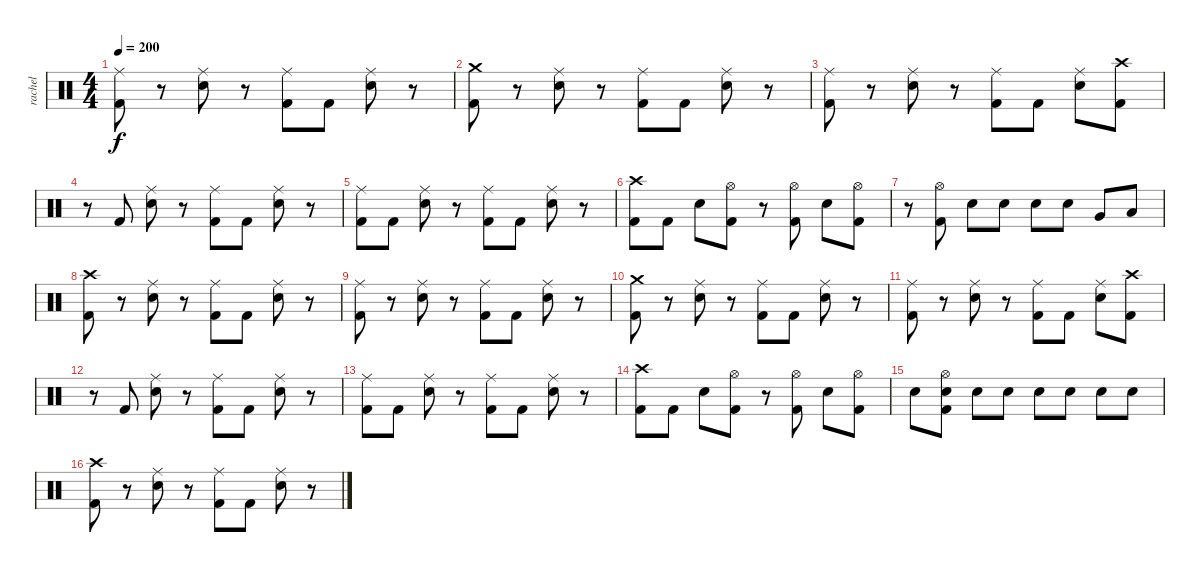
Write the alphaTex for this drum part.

\track ("rachel" "rachel") {instrument percussion}
\staff {score}
\articulation defaults
\ts (4 4)
\tempo 200
\clef neutral
\ks c
("Ride (middle)" "Kick (hit) 2").8{dy f} r.8 ("Ride (middle)" "Electric Snare (hit)").8 r.8 ("Ride (middle)" "Kick (hit) 2").8 "Kick (hit) 2".8 ("Ride (middle)" "Electric Snare (hit)").8 r.8 |
("Crash medium (hit)" "Kick (hit) 2").8 r.8 ("Ride (middle)" "Electric Snare (hit)").8 r.8 ("Ride (middle)" "Kick (hit) 2").8 "Kick (hit) 2".8 ("Ride (middle)" "Electric Snare (hit)").8 r.8 |
("Ride (middle)" "Kick (hit) 2").8 r.8 ("Ride (middle)" "Electric Snare (hit)").8 r.8 ("Ride (middle)" "Kick (hit) 2").8 "Kick (hit) 2".8 ("Ride (middle)" "Electric Snare (hit)").8 ("Crash high (hit)" "Kick (hit) 2").8 |
r.8 "Kick (hit) 2".8 ("Ride (middle)" "Electric Snare (hit)").8 r.8 ("Ride (middle)" "Kick (hit) 2").8 "Kick (hit) 2".8 ("Ride (middle)" "Electric Snare (hit)").8 r.8 |
("Ride (middle)" "Kick (hit) 2").8 "Kick (hit) 2".8 ("Ride (middle)" "Electric Snare (hit)").8 r.8 ("Ride (middle)" "Kick (hit) 2").8 "Kick (hit) 2".8 ("Ride (middle)" "Electric Snare (hit)").8 r.8 |
("Crash high (hit)" "Kick (hit) 2").8 "Kick (hit) 2".8 "Electric Snare (hit)".8 ("Hi-Hat (open)" "Kick (hit) 2").8 r.8 ("Hi-Hat (open)" "Kick (hit) 2").8 "Electric Snare (hit)".8 ("Hi-Hat (open)" "Kick (hit) 2").8 |
r.8 ("Hi-Hat (open)" "Kick (hit) 2").8 "Electric Snare (hit)".8 "Electric Snare (hit)".8 "Electric Snare (hit)".8 "Electric Snare (hit)".8 "Very Low Tom (hit)".8 "Low Floor Tom (hit)".8 |
("Crash high (hit)" "Kick (hit) 2").8 r.8 ("Ride (middle)" "Electric Snare (hit)").8 r.8 ("Ride (middle)" "Kick (hit) 2").8 "Kick (hit) 2".8 ("Ride (middle)" "Electric Snare (hit)").8 r.8 |
("Ride (middle)" "Kick (hit) 2").8 r.8 ("Ride (middle)" "Electric Snare (hit)").8 r.8 ("Ride (middle)" "Kick (hit) 2").8 "Kick (hit) 2".8 ("Ride (middle)" "Electric Snare (hit)").8 r.8 |
("Crash medium (hit)" "Kick (hit) 2").8 r.8 ("Ride (middle)" "Electric Snare (hit)").8 r.8 ("Ride (middle)" "Kick (hit) 2").8 "Kick (hit) 2".8 ("Ride (middle)" "Electric Snare (hit)").8 r.8 |
("Ride (middle)" "Kick (hit) 2").8 r.8 ("Ride (middle)" "Electric Snare (hit)").8 r.8 ("Ride (middle)" "Kick (hit) 2").8 "Kick (hit) 2".8 ("Ride (middle)" "Electric Snare (hit)").8 ("Crash high (hit)" "Kick (hit) 2").8 |
r.8 "Kick (hit) 2".8 ("Ride (middle)" "Electric Snare (hit)").8 r.8 ("Ride (middle)" "Kick (hit) 2").8 "Kick (hit) 2".8 ("Ride (middle)" "Electric Snare (hit)").8 r.8 |
("Ride (middle)" "Kick (hit) 2").8 "Kick (hit) 2".8 ("Ride (middle)" "Electric Snare (hit)").8 r.8 ("Ride (middle)" "Kick (hit) 2").8 "Kick (hit) 2".8 ("Ride (middle)" "Electric Snare (hit)").8 r.8 |
("Crash high (hit)" "Kick (hit) 2").8 "Kick (hit) 2".8 "Electric Snare (hit)".8 ("Hi-Hat (open)" "Kick (hit) 2").8 r.8 ("Hi-Hat (open)" "Kick (hit) 2").8 "Electric Snare (hit)".8 ("Hi-Hat (open)" "Kick (hit) 2").8 |
"Electric Snare (hit)".8 ("Hi-Hat (open)" "Electric Snare (hit)" "Kick (hit) 2").8 "Electric Snare (hit)".8 "Electric Snare (hit)".8 "Electric Snare (hit)".8 "Electric Snare (hit)".8 "Electric Snare (hit)".8 "Electric Snare (hit)".8 |
("Crash high (hit)" "Kick (hit) 2").8 r.8 ("Ride (middle)" "Electric Snare (hit)").8 r.8 ("Ride (middle)" "Kick (hit) 2").8 "Kick (hit) 2".8 ("Ride (middle)" "Electric Snare (hit)").8 r.8
